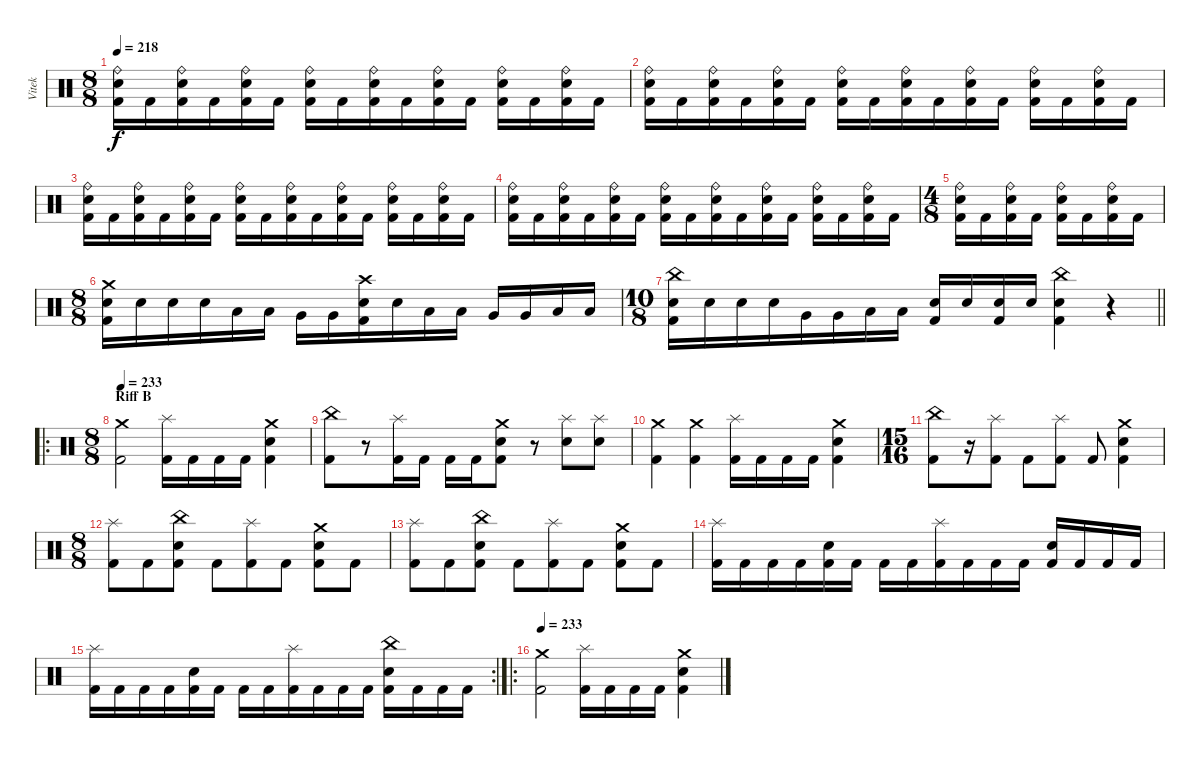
\track ("Vitek" "Vitek") {instrument percussion}
\staff {score}
\articulation defaults
\ts (8 8)
\tempo 218
\clef neutral
\ks c
("Ride (bell)" "Electric Snare (hit)" "Kick (hit) 2").16{dy f} "Kick (hit) 2".16 ("Ride (bell)" "Electric Snare (hit)" "Kick (hit) 2").16 "Kick (hit) 2".16 ("Ride (bell)" "Electric Snare (hit)" "Kick (hit) 2").16 "Kick (hit) 2".16 ("Ride (bell)" "Electric Snare (hit)" "Kick (hit) 2").16 "Kick (hit) 2".16 ("Ride (bell)" "Electric Snare (hit)" "Kick (hit) 2").16 "Kick (hit) 2".16 ("Ride (bell)" "Electric Snare (hit)" "Kick (hit) 2").16 "Kick (hit) 2".16 ("Ride (bell)" "Electric Snare (hit)" "Kick (hit) 2").16 "Kick (hit) 2".16 ("Ride (bell)" "Electric Snare (hit)" "Kick (hit) 2").16 "Kick (hit) 2".16 |
("Ride (bell)" "Electric Snare (hit)" "Kick (hit) 2").16 "Kick (hit) 2".16 ("Ride (bell)" "Electric Snare (hit)" "Kick (hit) 2").16 "Kick (hit) 2".16 ("Ride (bell)" "Electric Snare (hit)" "Kick (hit) 2").16 "Kick (hit) 2".16 ("Ride (bell)" "Electric Snare (hit)" "Kick (hit) 2").16 "Kick (hit) 2".16 ("Ride (bell)" "Electric Snare (hit)" "Kick (hit) 2").16 "Kick (hit) 2".16 ("Ride (bell)" "Electric Snare (hit)" "Kick (hit) 2").16 "Kick (hit) 2".16 ("Ride (bell)" "Electric Snare (hit)" "Kick (hit) 2").16 "Kick (hit) 2".16 ("Ride (bell)" "Electric Snare (hit)" "Kick (hit) 2").16 "Kick (hit) 2".16 |
("Ride (bell)" "Electric Snare (hit)" "Kick (hit) 2").16 "Kick (hit) 2".16 ("Ride (bell)" "Electric Snare (hit)" "Kick (hit) 2").16 "Kick (hit) 2".16 ("Ride (bell)" "Electric Snare (hit)" "Kick (hit) 2").16 "Kick (hit) 2".16 ("Ride (bell)" "Electric Snare (hit)" "Kick (hit) 2").16 "Kick (hit) 2".16 ("Ride (bell)" "Electric Snare (hit)" "Kick (hit) 2").16 "Kick (hit) 2".16 ("Ride (bell)" "Electric Snare (hit)" "Kick (hit) 2").16 "Kick (hit) 2".16 ("Ride (bell)" "Electric Snare (hit)" "Kick (hit) 2").16 "Kick (hit) 2".16 ("Ride (bell)" "Electric Snare (hit)" "Kick (hit) 2").16 "Kick (hit) 2".16 |
("Ride (bell)" "Electric Snare (hit)" "Kick (hit) 2").16 "Kick (hit) 2".16 ("Ride (bell)" "Electric Snare (hit)" "Kick (hit) 2").16 "Kick (hit) 2".16 ("Ride (bell)" "Electric Snare (hit)" "Kick (hit) 2").16 "Kick (hit) 2".16 ("Ride (bell)" "Electric Snare (hit)" "Kick (hit) 2").16 "Kick (hit) 2".16 ("Ride (bell)" "Electric Snare (hit)" "Kick (hit) 2").16 "Kick (hit) 2".16 ("Ride (bell)" "Electric Snare (hit)" "Kick (hit) 2").16 "Kick (hit) 2".16 ("Ride (bell)" "Electric Snare (hit)" "Kick (hit) 2").16 "Kick (hit) 2".16 ("Ride (bell)" "Electric Snare (hit)" "Kick (hit) 2").16 "Kick (hit) 2".16 |
\ts (4 8)
("Ride (bell)" "Electric Snare (hit)" "Kick (hit) 2").16 "Kick (hit) 2".16 ("Ride (bell)" "Electric Snare (hit)" "Kick (hit) 2").16 "Kick (hit) 2".16 ("Ride (bell)" "Electric Snare (hit)" "Kick (hit) 2").16 "Kick (hit) 2".16 ("Ride (bell)" "Electric Snare (hit)" "Kick (hit) 2").16 "Kick (hit) 2".16 |
\ts (8 8)
("Crash medium (hit)" "Electric Snare (hit)" "Kick (hit) 2").16 "Electric Snare (hit)".16 "Electric Snare (hit)".16 "Electric Snare (hit)".16 "Low Tom (hit)".16 "Low Tom (hit)".16 "Very Low Tom (hit)".16 "Very Low Tom (hit)".16 ("Crash high (hit)" "Electric Snare (hit)" "Kick (hit) 2").16 "Electric Snare (hit)".16 "Low Tom (hit)".16 "Low Tom (hit)".16 "Very Low Tom (hit)".16 "Very Low Tom (hit)".16 "Low Floor Tom (hit)".16 "Low Floor Tom (hit)".16 |
\ts (10 8)
\barLineRight lightlight
("China (hit)" "Electric Snare (hit)" "Kick (hit) 2").16 "Electric Snare (hit)".16 "Electric Snare (hit)".16 "Electric Snare (hit)".16 "Very Low Tom (hit)".16 "Very Low Tom (hit)".16 "Low Floor Tom (hit)".16 "Low Floor Tom (hit)".16 ("Electric Snare (hit)" "Kick (hit) 2").16 "Electric Snare (hit)".16 ("Electric Snare (hit)" "Kick (hit) 2").16 "Electric Snare (hit)".16 ("China (hit)" "Electric Snare (hit)" "Kick (hit) 2").4 r.4 |
\ro
\ts (8 8)
\section ("" "Riff B")
\tempo 233
("Crash medium (hit)" "Kick (hit) 2").2 ("Splash (hit)" "Kick (hit) 2").16 "Kick (hit) 2".16 "Kick (hit) 2".16 "Kick (hit) 2".16 ("Crash medium (hit)" "Electric Snare (hit)" "Kick (hit) 2").4 |
("China (hit)" "Kick (hit) 2").8 r.8 ("Splash (hit)" "Kick (hit) 2").16 "Kick (hit) 2".16 "Kick (hit) 2".16 "Kick (hit) 2".16 ("Crash medium (hit)" "Electric Snare (hit)" "Kick (hit) 2").8 r.8 ("Splash (hit)" "Electric Snare (hit)").8 ("Splash (hit)" "Electric Snare (hit)").8 |
("Crash medium (hit)" "Kick (hit) 2").4 ("Crash medium (hit)" "Kick (hit) 2").4 ("Splash (hit)" "Kick (hit) 2").16 "Kick (hit) 2".16 "Kick (hit) 2".16 "Kick (hit) 2".16 ("Crash medium (hit)" "Electric Snare (hit)" "Kick (hit) 2").4 |
\ts (15 16)
("China (hit)" "Kick (hit) 2").8 r.16 ("Splash (hit)" "Kick (hit) 2").8 "Kick (hit) 2".8 ("Splash (hit)" "Kick (hit) 2").8 "Kick (hit) 2".8 ("Crash medium (hit)" "Electric Snare (hit)" "Kick (hit) 2").4 |
\ts (8 8)
("Splash (hit)" "Kick (hit) 2").8 "Kick (hit) 2".8 ("China (hit)" "Electric Snare (hit)" "Kick (hit) 2").8 "Kick (hit) 2".8 ("Splash (hit)" "Kick (hit) 2").8 "Kick (hit) 2".8 ("Crash medium (hit)" "Electric Snare (hit)" "Kick (hit) 2").8 "Kick (hit) 2".8 |
("Splash (hit)" "Kick (hit) 2").8 "Kick (hit) 2".8 ("China (hit)" "Electric Snare (hit)" "Kick (hit) 2").8 "Kick (hit) 2".8 ("Splash (hit)" "Kick (hit) 2").8 "Kick (hit) 2".8 ("Crash medium (hit)" "Electric Snare (hit)" "Kick (hit) 2").8 "Kick (hit) 2".8 |
("Splash (hit)" "Kick (hit) 2").16 "Kick (hit) 2".16 "Kick (hit) 2".16 "Kick (hit) 2".16 ("Electric Snare (hit)" "Kick (hit) 2").16 "Kick (hit) 2".16 "Kick (hit) 2".16 "Kick (hit) 2".16 ("Splash (hit)" "Kick (hit) 2").16 "Kick (hit) 2".16 "Kick (hit) 2".16 "Kick (hit) 2".16 ("Electric Snare (hit)" "Kick (hit) 2").16 "Kick (hit) 2".16 "Kick (hit) 2".16 "Kick (hit) 2".16 |
\rc 2
("Splash (hit)" "Kick (hit) 2").16 "Kick (hit) 2".16 "Kick (hit) 2".16 "Kick (hit) 2".16 ("Electric Snare (hit)" "Kick (hit) 2").16 "Kick (hit) 2".16 "Kick (hit) 2".16 "Kick (hit) 2".16 ("Splash (hit)" "Kick (hit) 2").16 "Kick (hit) 2".16 "Kick (hit) 2".16 "Kick (hit) 2".16 ("China (hit)" "Electric Snare (hit)" "Kick (hit) 2").16 "Kick (hit) 2".16 "Kick (hit) 2".16 "Kick (hit) 2".16 |
\ro
\tempo 233
("Crash medium (hit)" "Kick (hit) 2").2 ("Splash (hit)" "Kick (hit) 2").16 "Kick (hit) 2".16 "Kick (hit) 2".16 "Kick (hit) 2".16 ("Crash medium (hit)" "Electric Snare (hit)" "Kick (hit) 2").4
